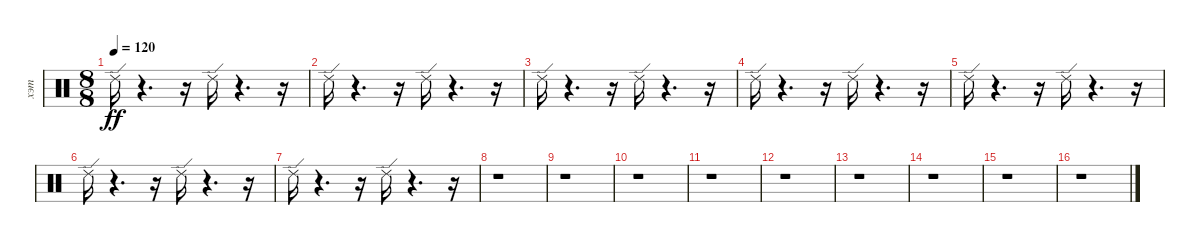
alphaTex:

\track ("хэт" "хэт") {instrument percussion}
\staff {score}
\articulation defaults
\ts (8 8)
\tempo 120
\clef neutral
\ks c "Ride (edge) 2".16{dy ff}
r.4{d} r.16 "Ride (edge) 2".16 r.4{d} r.16 |
"Ride (edge) 2".16 r.4{d} r.16 "Ride (edge) 2".16 r.4{d} r.16 |
"Ride (edge) 2".16 r.4{d} r.16 "Ride (edge) 2".16 r.4{d} r.16 |
"Ride (edge) 2".16 r.4{d} r.16 "Ride (edge) 2".16 r.4{d} r.16 |
"Ride (edge) 2".16 r.4{d} r.16 "Ride (edge) 2".16 r.4{d} r.16 |
"Ride (edge) 2".16 r.4{d} r.16 "Ride (edge) 2".16 r.4{d} r.16 |
"Ride (edge) 2".16 r.4{d} r.16 "Ride (edge) 2".16 r.4{d} r.16 |
r.1 |
r.1 |
r.1 |
r.1 |
r.1 |
r.1 |
r.1 |
r.1 |
r.1
